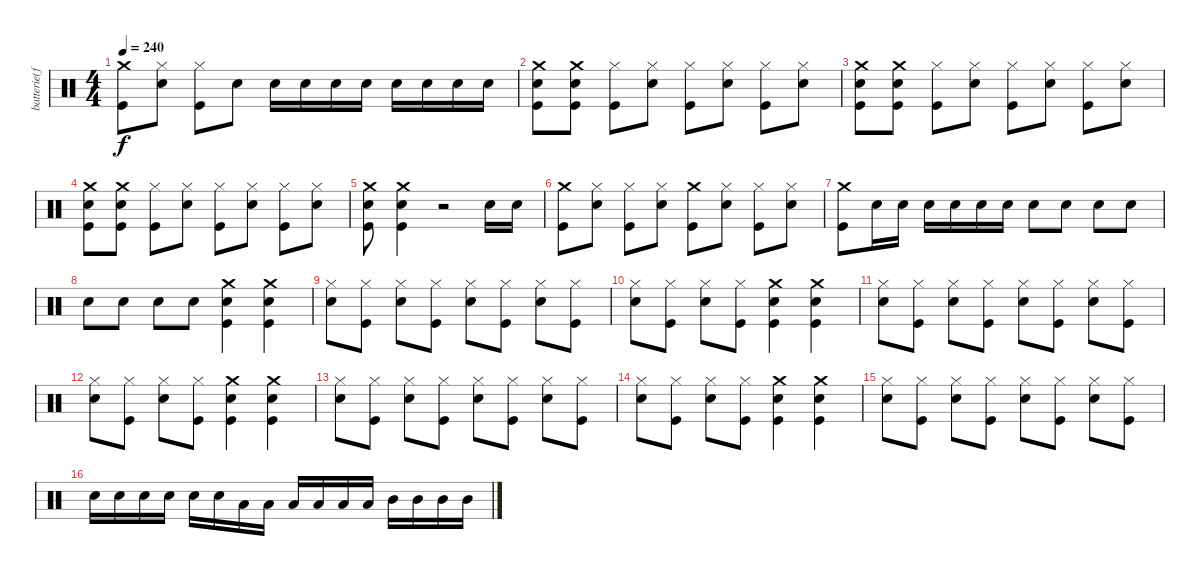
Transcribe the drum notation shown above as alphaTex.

\track ("batterie(felix)" "batterie(f") {instrument percussion}
\staff {score}
\articulation defaults
\ts (4 4)
\tempo 240
\clef neutral
\ks c
("Crash medium (hit)" "Kick (hit)").8{dy f} ("Hi-Hat (closed)" "Snare (hit) 2").8 ("Hi-Hat (closed)" "Kick (hit)").8 "Snare (hit) 2".8 "Snare (hit) 2".16 "Snare (hit) 2".16 "Snare (hit) 2".16 "Snare (hit) 2".16 "Snare (hit) 2".16 "Snare (hit) 2".16 "Snare (hit) 2".16 "Snare (hit) 2".16 |
("Crash medium (hit)" "Snare (hit) 2" "Kick (hit)").8 ("Crash medium (hit)" "Snare (hit) 2" "Kick (hit)").8 ("Hi-Hat (closed)" "Kick (hit)").8 ("Hi-Hat (closed)" "Snare (hit) 2").8 ("Hi-Hat (closed)" "Kick (hit)").8 ("Hi-Hat (closed)" "Snare (hit) 2").8 ("Hi-Hat (closed)" "Kick (hit)").8 ("Hi-Hat (closed)" "Snare (hit) 2").8 |
("Crash medium (hit)" "Snare (hit) 2" "Kick (hit)").8 ("Crash medium (hit)" "Snare (hit) 2" "Kick (hit)").8 ("Hi-Hat (closed)" "Kick (hit)").8 ("Hi-Hat (closed)" "Snare (hit) 2").8 ("Hi-Hat (closed)" "Kick (hit)").8 ("Hi-Hat (closed)" "Snare (hit) 2").8 ("Hi-Hat (closed)" "Kick (hit)").8 ("Hi-Hat (closed)" "Snare (hit) 2").8 |
("Crash medium (hit)" "Snare (hit) 2" "Kick (hit)").8 ("Crash medium (hit)" "Snare (hit) 2" "Kick (hit)").8 ("Hi-Hat (closed)" "Kick (hit)").8 ("Hi-Hat (closed)" "Snare (hit) 2").8 ("Hi-Hat (closed)" "Kick (hit)").8 ("Hi-Hat (closed)" "Snare (hit) 2").8 ("Hi-Hat (closed)" "Kick (hit)").8 ("Hi-Hat (closed)" "Snare (hit) 2").8 |
("Crash medium (hit)" "Snare (hit) 2" "Kick (hit)").8 ("Crash medium (hit)" "Snare (hit) 2" "Kick (hit)").4 r.2 "Snare (hit) 2".16 "Snare (hit) 2".16 |
("Crash medium (hit)" "Kick (hit)").8 ("Hi-Hat (closed)" "Snare (hit) 2").8 ("Hi-Hat (closed)" "Kick (hit)").8 ("Hi-Hat (closed)" "Snare (hit) 2").8 ("Crash medium (hit)" "Kick (hit)").8 ("Hi-Hat (closed)" "Snare (hit) 2").8 ("Hi-Hat (closed)" "Kick (hit)").8 ("Hi-Hat (closed)" "Snare (hit) 2").8 |
("Crash medium (hit)" "Kick (hit)").8 "Snare (hit) 2".16 "Snare (hit) 2".16 "Snare (hit) 2".16 "Snare (hit) 2".16 "Snare (hit) 2".16 "Snare (hit) 2".16 "Snare (hit) 2".8 "Snare (hit) 2".8 "Snare (hit) 2".8 "Snare (hit) 2".8 |
"Snare (hit) 2".8 "Snare (hit) 2".8 "Snare (hit) 2".8 "Snare (hit) 2".8 ("Crash medium (hit)" "Snare (hit) 2" "Kick (hit)").4 ("Crash medium (hit)" "Snare (hit) 2" "Kick (hit)").4 |
("Hi-Hat (closed)" "Snare (hit) 2").8 ("Hi-Hat (closed)" "Kick (hit)").8 ("Hi-Hat (closed)" "Snare (hit) 2").8 ("Hi-Hat (closed)" "Kick (hit)").8 ("Hi-Hat (closed)" "Snare (hit) 2").8 ("Hi-Hat (closed)" "Kick (hit)").8 ("Hi-Hat (closed)" "Snare (hit) 2").8 ("Hi-Hat (closed)" "Kick (hit)").8 |
("Hi-Hat (closed)" "Snare (hit) 2").8 ("Hi-Hat (closed)" "Kick (hit)").8 ("Hi-Hat (closed)" "Snare (hit) 2").8 ("Hi-Hat (closed)" "Kick (hit)").8 ("Crash medium (hit)" "Snare (hit) 2" "Kick (hit)").4 ("Crash medium (hit)" "Snare (hit) 2" "Kick (hit)").4 |
("Hi-Hat (closed)" "Snare (hit) 2").8 ("Hi-Hat (closed)" "Kick (hit)").8 ("Hi-Hat (closed)" "Snare (hit) 2").8 ("Hi-Hat (closed)" "Kick (hit)").8 ("Hi-Hat (closed)" "Snare (hit) 2").8 ("Hi-Hat (closed)" "Kick (hit)").8 ("Hi-Hat (closed)" "Snare (hit) 2").8 ("Hi-Hat (closed)" "Kick (hit)").8 |
("Hi-Hat (closed)" "Snare (hit) 2").8 ("Hi-Hat (closed)" "Kick (hit)").8 ("Hi-Hat (closed)" "Snare (hit) 2").8 ("Hi-Hat (closed)" "Kick (hit)").8 ("Crash medium (hit)" "Snare (hit) 2" "Kick (hit)").4 ("Crash medium (hit)" "Snare (hit) 2" "Kick (hit)").4 |
("Hi-Hat (closed)" "Snare (hit) 2").8 ("Hi-Hat (closed)" "Kick (hit)").8 ("Hi-Hat (closed)" "Snare (hit) 2").8 ("Hi-Hat (closed)" "Kick (hit)").8 ("Hi-Hat (closed)" "Snare (hit) 2").8 ("Hi-Hat (closed)" "Kick (hit)").8 ("Hi-Hat (closed)" "Snare (hit) 2").8 ("Hi-Hat (closed)" "Kick (hit)").8 |
("Hi-Hat (closed)" "Snare (hit) 2").8 ("Hi-Hat (closed)" "Kick (hit)").8 ("Hi-Hat (closed)" "Snare (hit) 2").8 ("Hi-Hat (closed)" "Kick (hit)").8 ("Crash medium (hit)" "Snare (hit) 2" "Kick (hit)").4 ("Crash medium (hit)" "Snare (hit) 2" "Kick (hit)").4 |
("Hi-Hat (closed)" "Snare (hit) 2").8 ("Hi-Hat (closed)" "Kick (hit)").8 ("Hi-Hat (closed)" "Snare (hit) 2").8 ("Hi-Hat (closed)" "Kick (hit)").8 ("Hi-Hat (closed)" "Snare (hit) 2").8 ("Hi-Hat (closed)" "Kick (hit)").8 ("Hi-Hat (closed)" "Snare (hit) 2").8 ("Hi-Hat (closed)" "Kick (hit)").8 |
"Snare (hit) 2".16 "Snare (hit) 2".16 "Snare (hit) 2".16 "Snare (hit) 2".16 "Snare (hit) 2".16 "Snare (hit) 2".16 "Low Tom (hit)".16 "Low Tom (hit)".16 "Low Tom (hit)".16 "Low Tom (hit)".16 "Low Tom (hit)".16 "Low Tom (hit)".16 "Mid Tom (hit)".16 "Mid Tom (hit)".16 "Mid Tom (hit)".16 "Mid Tom (hit)".16
